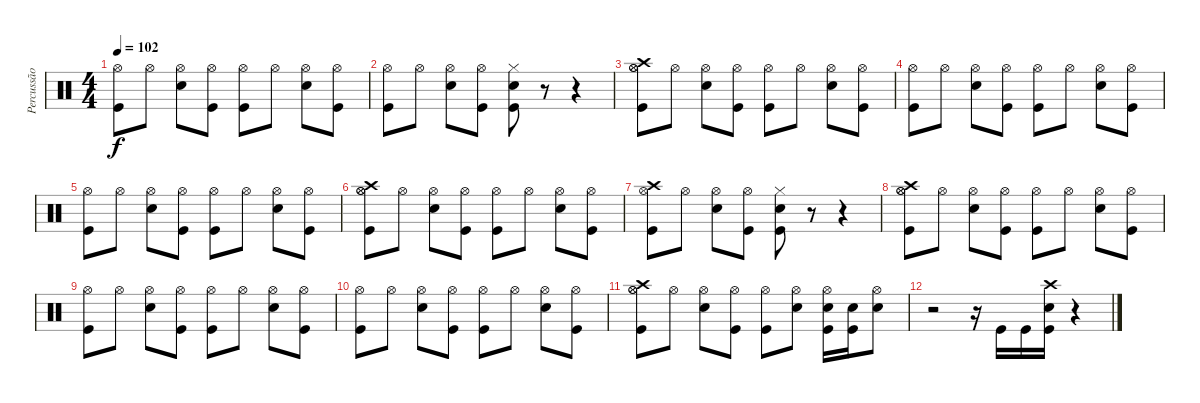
\track ("Percussão" "Percussão") {instrument percussion}
\staff {score}
\articulation defaults
\ts (4 4)
\tempo 102
\clef neutral
\ks c
("Hi-Hat (open)" "Kick (hit)").8{dy f} "Hi-Hat (open)".8 ("Snare (hit) 2" "Hi-Hat (open)").8 ("Hi-Hat (open)" "Kick (hit)").8 ("Hi-Hat (open)" "Kick (hit)").8 "Hi-Hat (open)".8 ("Hi-Hat (open)" "Snare (hit) 2").8 ("Hi-Hat (open)" "Kick (hit)").8 |
("Hi-Hat (open)" "Kick (hit)").8 "Hi-Hat (open)".8 ("Snare (hit) 2" "Hi-Hat (open)").8 ("Hi-Hat (open)" "Kick (hit)").8 ("Kick (hit)" "Snare (hit) 2" "Hi-Hat (closed)").8 r.8 r.4 |
("Hi-Hat (open)" "Crash high (hit)" "Hi-Hat (open)" "Kick (hit)").8 "Hi-Hat (open)".8 ("Snare (hit) 2" "Hi-Hat (open)").8 ("Hi-Hat (open)" "Kick (hit)").8 ("Hi-Hat (open)" "Kick (hit)").8 "Hi-Hat (open)".8 ("Hi-Hat (open)" "Snare (hit) 2").8 ("Hi-Hat (open)" "Kick (hit)").8 |
("Hi-Hat (open)" "Kick (hit)").8 "Hi-Hat (open)".8 ("Snare (hit) 2" "Hi-Hat (open)").8 ("Hi-Hat (open)" "Kick (hit)").8 ("Hi-Hat (open)" "Kick (hit)").8 "Hi-Hat (open)".8 ("Hi-Hat (open)" "Snare (hit) 2").8 ("Hi-Hat (open)" "Kick (hit)").8 |
("Hi-Hat (open)" "Kick (hit)").8 "Hi-Hat (open)".8 ("Snare (hit) 2" "Hi-Hat (open)").8 ("Hi-Hat (open)" "Kick (hit)").8 ("Hi-Hat (open)" "Kick (hit)").8 "Hi-Hat (open)".8 ("Hi-Hat (open)" "Snare (hit) 2").8 ("Hi-Hat (open)" "Kick (hit)").8 |
("Hi-Hat (open)" "Crash high (hit)" "Hi-Hat (open)" "Kick (hit)").8 "Hi-Hat (open)".8 ("Snare (hit) 2" "Hi-Hat (open)").8 ("Hi-Hat (open)" "Kick (hit)").8 ("Hi-Hat (open)" "Kick (hit)").8 "Hi-Hat (open)".8 ("Hi-Hat (open)" "Snare (hit) 2").8 ("Hi-Hat (open)" "Kick (hit)").8 |
("Crash high (hit)" "Hi-Hat (open)" "Kick (hit)").8 "Hi-Hat (open)".8 ("Snare (hit) 2" "Hi-Hat (open)").8 ("Hi-Hat (open)" "Kick (hit)").8 ("Kick (hit)" "Snare (hit) 2" "Hi-Hat (closed)").8 r.8 r.4 |
("Hi-Hat (open)" "Crash high (hit)" "Hi-Hat (open)" "Kick (hit)").8 "Hi-Hat (open)".8 ("Snare (hit) 2" "Hi-Hat (open)").8 ("Hi-Hat (open)" "Kick (hit)").8 ("Hi-Hat (open)" "Kick (hit)").8 "Hi-Hat (open)".8 ("Hi-Hat (open)" "Snare (hit) 2").8 ("Hi-Hat (open)" "Kick (hit)").8 |
("Hi-Hat (open)" "Kick (hit)").8 "Hi-Hat (open)".8 ("Snare (hit) 2" "Hi-Hat (open)").8 ("Hi-Hat (open)" "Kick (hit)").8 ("Hi-Hat (open)" "Kick (hit)").8 "Hi-Hat (open)".8 ("Hi-Hat (open)" "Snare (hit) 2").8 ("Hi-Hat (open)" "Kick (hit)").8 |
("Hi-Hat (open)" "Kick (hit)").8 "Hi-Hat (open)".8 ("Snare (hit) 2" "Hi-Hat (open)").8 ("Hi-Hat (open)" "Kick (hit)").8 ("Hi-Hat (open)" "Kick (hit)").8 "Hi-Hat (open)".8 ("Hi-Hat (open)" "Snare (hit) 2").8 ("Hi-Hat (open)" "Kick (hit)").8 |
("Hi-Hat (open)" "Crash high (hit)" "Hi-Hat (open)" "Kick (hit)").8 "Hi-Hat (open)".8 ("Snare (hit) 2" "Hi-Hat (open)").8 ("Hi-Hat (open)" "Kick (hit)").8 ("Hi-Hat (open)" "Kick (hit)").8 ("Hi-Hat (open)" "Snare (hit) 2").8 ("Hi-Hat (open)" "Kick (hit)" "Snare (hit) 2").16 ("Kick (hit)" "Snare (hit) 2").16 ("Snare (hit) 2" "Hi-Hat (open)").8 |
r.2 r.16 "Kick (hit)".16 "Kick (hit)".16 ("Kick (hit)" "Snare (hit) 2" "Crash high (hit)").16 r.4
